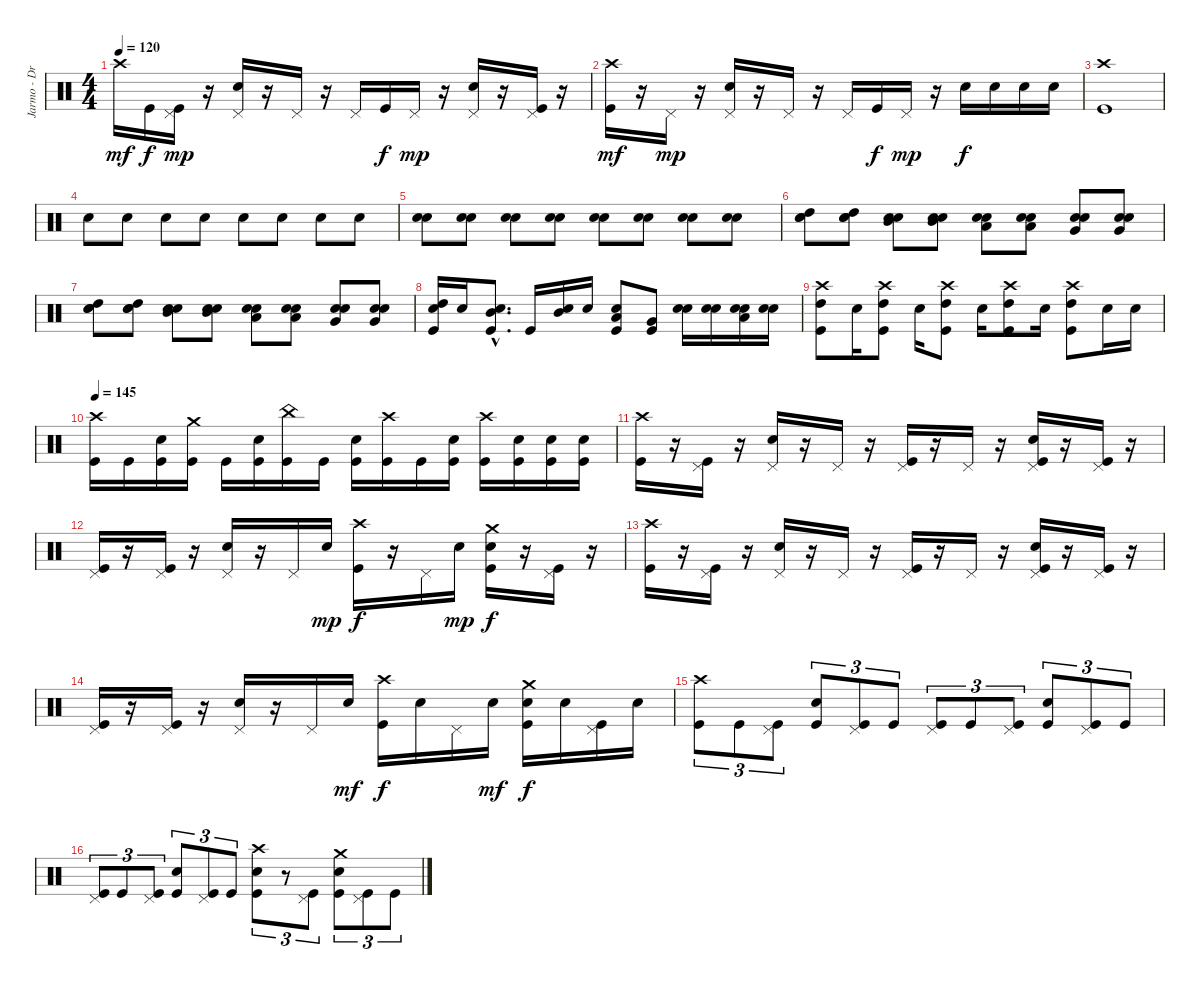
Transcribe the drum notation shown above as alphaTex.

\track ("Jarmo - Drums" "Jarmo - Dr") {instrument percussion}
\staff {score}
\articulation defaults
\ts (4 4)
\tempo 120
\clef neutral
\ks c "Crash high (hit)".16{dy mf} "Kick (hit)".16{dy f}
("Kick (hit)" "Pedal Hi-Hat (hit)").16{dy mp} r.16 ("Electric Snare (hit)" "Pedal Hi-Hat (hit)").16 r.16 "Pedal Hi-Hat (hit)".16 r.16 "Pedal Hi-Hat (hit)".16 "Kick (hit)".16{dy f} "Pedal Hi-Hat (hit)".16{dy mp} r.16 ("Electric Snare (hit)" "Pedal Hi-Hat (hit)").16 r.16 ("Kick (hit)" "Pedal Hi-Hat (hit)").16 r.16 |
("Kick (hit)" "Crash high (hit)").16{dy mf} r.16 "Pedal Hi-Hat (hit)".16{dy mp} r.16 ("Electric Snare (hit)" "Pedal Hi-Hat (hit)").16 r.16 "Pedal Hi-Hat (hit)".16 r.16 "Pedal Hi-Hat (hit)".16 "Kick (hit)".16{dy f} "Pedal Hi-Hat (hit)".16{dy mp} r.16 "Electric Snare (hit)".16{dy f} "Electric Snare (hit)".16 "Electric Snare (hit)".16 "Electric Snare (hit)".16 |
("Kick (hit)" "Crash high (hit)").1{volume 0} |
"Electric Snare (hit)".8{volume 12} "Electric Snare (hit)".8 "Electric Snare (hit)".8 "Electric Snare (hit)".8 "Electric Snare (hit)".8 "Electric Snare (hit)".8 "Electric Snare (hit)".8 "Electric Snare (hit)".8 |
("Electric Snare (hit)" "Snare (hit) 2").8 ("Electric Snare (hit)" "Snare (hit) 2").8 ("Electric Snare (hit)" "Snare (hit) 2").8 ("Electric Snare (hit)" "Snare (hit) 2").8 ("Electric Snare (hit)" "Snare (hit) 2").8 ("Electric Snare (hit)" "Snare (hit) 2").8 ("Electric Snare (hit)" "Snare (hit) 2").8 ("Electric Snare (hit)" "Snare (hit) 2").8 |
("Electric Snare (hit)" "Snare (hit) 2" "High Tom (hit)").8 ("Electric Snare (hit)" "Snare (hit) 2" "High Tom (hit)").8 ("Electric Snare (hit)" "Snare (hit) 2" "Mid Tom (hit)").8 ("Electric Snare (hit)" "Snare (hit) 2" "Mid Tom (hit)").8 ("Electric Snare (hit)" "Snare (hit) 2" "Low Tom (hit)").8 ("Electric Snare (hit)" "Snare (hit) 2" "Low Tom (hit)").8 ("Electric Snare (hit)" "Snare (hit) 2" "Very Low Tom (hit)").8 ("Electric Snare (hit)" "Snare (hit) 2" "Very Low Tom (hit)").8 |
("Electric Snare (hit)" "Snare (hit) 2" "High Tom (hit)").8 ("Electric Snare (hit)" "Snare (hit) 2" "High Tom (hit)").8 ("Electric Snare (hit)" "Snare (hit) 2" "Mid Tom (hit)").8 ("Electric Snare (hit)" "Snare (hit) 2" "Mid Tom (hit)").8 ("Electric Snare (hit)" "Snare (hit) 2" "Low Tom (hit)").8 ("Electric Snare (hit)" "Snare (hit) 2" "Low Tom (hit)").8 ("Electric Snare (hit)" "Snare (hit) 2" "Very Low Tom (hit)").8 ("Electric Snare (hit)" "Snare (hit) 2" "Very Low Tom (hit)").8 |
("Kick (hit)" "Snare (hit) 2" "High Tom (hit)").16 "Snare (hit) 2".16 ("Kick (hit)"{hac} "Electric Snare (hit)"{hac} "Mid Tom (hit)"{hac}).8{d} "Kick (hit)".16 ("Snare (hit) 2" "Mid Tom (hit)").16 "Snare (hit) 2".16 ("Kick (hit)" "Electric Snare (hit)" "Low Tom (hit)").8 ("Kick (hit)" "Very Low Tom (hit)").8 ("Snare (hit) 2" "Electric Snare (hit)").16 ("Snare (hit) 2" "Electric Snare (hit)").16 ("Snare (hit) 2" "Electric Snare (hit)" "Low Floor Tom (hit)").16 ("Snare (hit) 2" "Electric Snare (hit)").16 |
("Crash high (hit)" "Kick (hit)" "High Tom (hit)").8 "Electric Snare (hit)".16 ("Crash high (hit)" "Kick (hit)" "High Tom (hit)").8 "Electric Snare (hit)".16 ("Crash high (hit)" "Kick (hit)" "High Tom (hit)").8 "Electric Snare (hit)".16 ("Crash high (hit)" "Kick (hit)" "High Tom (hit)").8 "Electric Snare (hit)".16 ("Crash high (hit)" "Kick (hit)" "High Tom (hit)").8 "Electric Snare (hit)".16 "Electric Snare (hit)".16 |
\tempo 145
("Kick (hit)" "Crash high (hit)").16 "Kick (hit)".16 ("Kick (hit)" "Electric Snare (hit)").16 ("Kick (hit)" "Crash medium (hit)").16 "Kick (hit)".16 ("Kick (hit)" "Electric Snare (hit)").16 ("Kick (hit)" "China (hit)").16 "Kick (hit)".16 ("Kick (hit)" "Electric Snare (hit)").16 ("Kick (hit)" "Crash high (hit)").16 "Kick (hit)".16 ("Kick (hit)" "Electric Snare (hit)").16 ("Kick (hit)" "Crash high (hit)").16 ("Kick (hit)" "Electric Snare (hit)").16 ("Kick (hit)" "Electric Snare (hit)").16 ("Kick (hit)" "Electric Snare (hit)").16 |
("Kick (hit)" "Crash high (hit)").16 r.16 ("Kick (hit)" "Pedal Hi-Hat (hit)").16 r.16 ("Electric Snare (hit)" "Pedal Hi-Hat (hit)").16 r.16 "Pedal Hi-Hat (hit)".16 r.16 ("Kick (hit)" "Pedal Hi-Hat (hit)").16 r.16 "Pedal Hi-Hat (hit)".16 r.16 ("Kick (hit)" "Electric Snare (hit)" "Pedal Hi-Hat (hit)").16 r.16 ("Kick (hit)" "Pedal Hi-Hat (hit)").16 r.16 |
("Kick (hit)" "Pedal Hi-Hat (hit)").16 r.16 ("Kick (hit)" "Pedal Hi-Hat (hit)").16 r.16 ("Electric Snare (hit)" "Pedal Hi-Hat (hit)").16 r.16 "Pedal Hi-Hat (hit)".16 "Electric Snare (hit)".16{dy mp} ("Kick (hit)" "Crash high (hit)").16{dy f} r.16 "Pedal Hi-Hat (hit)".16 "Electric Snare (hit)".16{dy mp} ("Kick (hit)" "Electric Snare (hit)" "Crash medium (hit)").16{dy f} r.16 ("Kick (hit)" "Pedal Hi-Hat (hit)").16 r.16 |
("Kick (hit)" "Crash high (hit)").16 r.16 ("Kick (hit)" "Pedal Hi-Hat (hit)").16 r.16 ("Electric Snare (hit)" "Pedal Hi-Hat (hit)").16 r.16 "Pedal Hi-Hat (hit)".16 r.16 ("Kick (hit)" "Pedal Hi-Hat (hit)").16 r.16 "Pedal Hi-Hat (hit)".16 r.16 ("Kick (hit)" "Electric Snare (hit)" "Pedal Hi-Hat (hit)").16 r.16 ("Kick (hit)" "Pedal Hi-Hat (hit)").16 r.16 |
("Kick (hit)" "Pedal Hi-Hat (hit)").16 r.16 ("Kick (hit)" "Pedal Hi-Hat (hit)").16 r.16 ("Electric Snare (hit)" "Pedal Hi-Hat (hit)").16 r.16 "Pedal Hi-Hat (hit)".16 "Electric Snare (hit)".16{dy mf} ("Kick (hit)" "Crash high (hit)").16{dy f} "Electric Snare (hit)".16 "Pedal Hi-Hat (hit)".16 "Electric Snare (hit)".16{dy mf} ("Kick (hit)" "Electric Snare (hit)" "Crash medium (hit)").16{dy f} "Electric Snare (hit)".16 ("Kick (hit)" "Pedal Hi-Hat (hit)").16 "Electric Snare (hit)".16 |
("Kick (hit)" "Crash high (hit)").8{tu (3 2)} "Kick (hit)".8{tu (3 2)} ("Kick (hit)" "Pedal Hi-Hat (hit)").8{tu (3 2)} ("Kick (hit)" "Electric Snare (hit)").8{tu (3 2)} ("Kick (hit)" "Pedal Hi-Hat (hit)").8{tu (3 2)} "Kick (hit)".8{tu (3 2)} ("Kick (hit)" "Pedal Hi-Hat (hit)").8{tu (3 2)} "Kick (hit)".8{tu (3 2)} ("Kick (hit)" "Pedal Hi-Hat (hit)").8{tu (3 2)} ("Kick (hit)" "Electric Snare (hit)").8{tu (3 2)} ("Kick (hit)" "Pedal Hi-Hat (hit)").8{tu (3 2)} "Kick (hit)".8{tu (3 2)} |
("Kick (hit)" "Pedal Hi-Hat (hit)").8{tu (3 2)} "Kick (hit)".8{tu (3 2)} ("Kick (hit)" "Pedal Hi-Hat (hit)").8{tu (3 2)} ("Kick (hit)" "Electric Snare (hit)").8{tu (3 2)} ("Kick (hit)" "Pedal Hi-Hat (hit)").8{tu (3 2)} "Kick (hit)".8{tu (3 2)} ("Kick (hit)" "Electric Snare (hit)" "Crash high (hit)").8{tu (3 2)} r.8{tu (3 2)} ("Kick (hit)" "Pedal Hi-Hat (hit)").8{tu (3 2)} ("Kick (hit)" "Electric Snare (hit)" "Crash medium (hit)").8{tu (3 2)} ("Kick (hit)" "Pedal Hi-Hat (hit)").8{tu (3 2)} "Kick (hit)".8{tu (3 2)}
